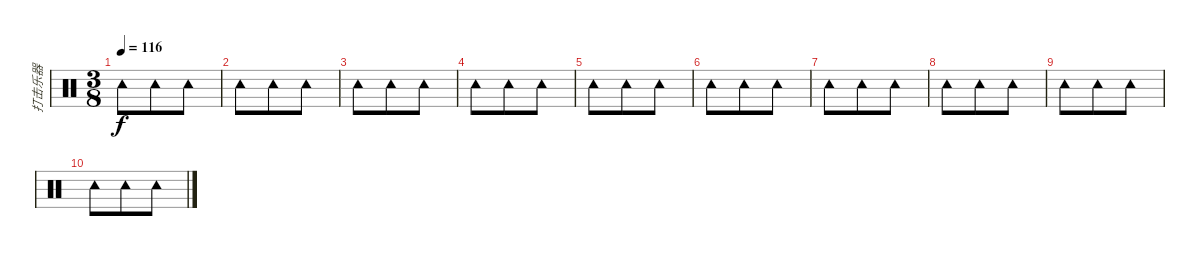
\track ("打击乐器" "打击乐器") {instrument percussion}
\staff {score}
\articulation defaults
\ts (3 8)
\tempo 116
\clef neutral
\ks c "Tambourine (hit)".8{dy f} "Tambourine (hit)".8 "Tambourine (hit)".8
|
"Tambourine (hit)".8 "Tambourine (hit)".8 "Tambourine (hit)".8 |
"Tambourine (hit)".8 "Tambourine (hit)".8 "Tambourine (hit)".8 |
"Tambourine (hit)".8 "Tambourine (hit)".8 "Tambourine (hit)".8 |
"Tambourine (hit)".8 "Tambourine (hit)".8 "Tambourine (hit)".8 |
"Tambourine (hit)".8 "Tambourine (hit)".8 "Tambourine (hit)".8 |
"Tambourine (hit)".8 "Tambourine (hit)".8 "Tambourine (hit)".8 |
"Tambourine (hit)".8 "Tambourine (hit)".8 "Tambourine (hit)".8 |
"Tambourine (hit)".8 "Tambourine (hit)".8 "Tambourine (hit)".8 |
"Tambourine (hit)".8 "Tambourine (hit)".8 "Tambourine (hit)".8
